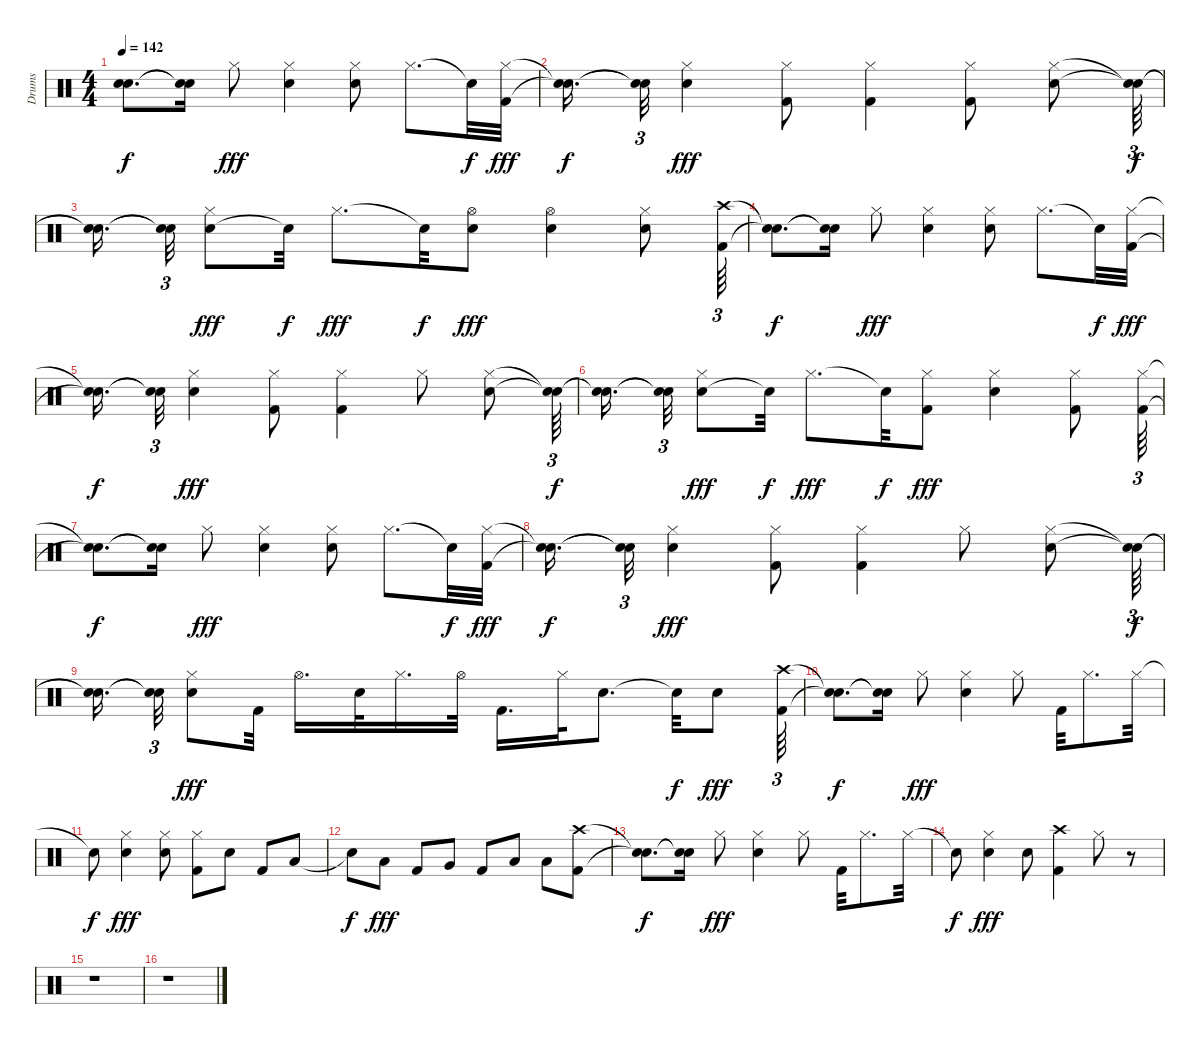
\track ("Drums" "Drums") {instrument percussion}
\staff {score}
\articulation defaults
\ts (4 4)
\tempo 142
\clef neutral
\ks c
("Snare (hit)"{t} "Snare (hit)"{t}).8{d dy f} ("Snare (hit)"{t} "Snare (hit)"{t}).16 "Hi-Hat (closed)".8{dy fff} ("Snare (hit) 2" "Hi-Hat (closed)").4 ("Snare (hit) 2" "Hi-Hat (closed)").8 "Hi-Hat (closed)".8{d} "Snare (hit)"{t}.32{dy f} ("Hi-Hat (closed)" "Kick (hit) 2").32{dy fff} |
("Snare (hit)"{t} "Snare (hit)"{t}).16{d dy f} ("Snare (hit)"{t} "Snare (hit)"{t}).32{tu (3 2)} ("Electric Snare (hit)" "Hi-Hat (closed)").4{dy fff} ("Kick (hit) 2" "Hi-Hat (closed)").8 ("Kick (hit) 2" "Hi-Hat (closed)").4 ("Hi-Hat (closed)" "Kick (hit) 2").8 ("Snare (hit) 2" "Hi-Hat (closed)").8 ("Snare (hit)"{t} "Snare (hit)"{t}).64{tu (3 2) dy f} |
("Snare (hit)"{t} "Snare (hit)"{t}).16{d} ("Snare (hit)"{t} "Snare (hit)"{t}).32{tu (3 2)} ("Snare (hit) 2" "Hi-Hat (closed)").8{dy fff} "Snare (hit)"{t}.32{dy f} "Hi-Hat (closed)".8{d dy fff} "Snare (hit)"{t}.32{dy f} ("Electric Snare (hit)" "Hi-Hat (open)").8{dy fff} ("Electric Snare (hit)" "Hi-Hat (open)").4 ("Electric Snare (hit)" "Hi-Hat (closed)").8 ("Crash high (hit)" "Kick (hit) 2").64{tu (3 2)} |
("Snare (hit)"{t} "Snare (hit)"{t}).8{d dy f} ("Snare (hit)"{t} "Snare (hit)"{t}).16 "Hi-Hat (closed)".8{dy fff} ("Snare (hit) 2" "Hi-Hat (closed)").4 ("Snare (hit) 2" "Hi-Hat (closed)").8 "Hi-Hat (closed)".8{d} "Snare (hit)"{t}.32{dy f} ("Hi-Hat (closed)" "Kick (hit) 2").32{dy fff} |
("Snare (hit)"{t} "Snare (hit)"{t}).16{d dy f} ("Snare (hit)"{t} "Snare (hit)"{t}).32{tu (3 2)} ("Electric Snare (hit)" "Hi-Hat (closed)").4{dy fff} ("Kick (hit) 2" "Hi-Hat (closed)").8 ("Kick (hit) 2" "Hi-Hat (closed)").4 "Hi-Hat (closed)".8 ("Snare (hit) 2" "Hi-Hat (closed)").8 ("Snare (hit)"{t} "Snare (hit)"{t}).64{tu (3 2) dy f} |
("Snare (hit)"{t} "Snare (hit)"{t}).16{d} ("Snare (hit)"{t} "Snare (hit)"{t}).32{tu (3 2)} ("Snare (hit) 2" "Hi-Hat (closed)").8{dy fff} "Snare (hit)"{t}.32{dy f} "Hi-Hat (closed)".8{d dy fff} "Snare (hit)"{t}.32{dy f} ("Hi-Hat (closed)" "Kick (hit) 2").8{dy fff} ("Electric Snare (hit)" "Hi-Hat (closed)").4 ("Hi-Hat (closed)" "Kick (hit) 2").8 ("Hi-Hat (closed)" "Kick (hit) 2").64{tu (3 2)} |
("Snare (hit)"{t} "Snare (hit)"{t}).8{d dy f} ("Snare (hit)"{t} "Snare (hit)"{t}).16 "Hi-Hat (closed)".8{dy fff} ("Snare (hit) 2" "Hi-Hat (closed)").4 ("Snare (hit) 2" "Hi-Hat (closed)").8 "Hi-Hat (closed)".8{d} "Snare (hit)"{t}.32{dy f} ("Hi-Hat (closed)" "Kick (hit) 2").32{dy fff} |
("Snare (hit)"{t} "Snare (hit)"{t}).16{d dy f} ("Snare (hit)"{t} "Snare (hit)"{t}).32{tu (3 2)} ("Electric Snare (hit)" "Hi-Hat (closed)").4{dy fff} ("Kick (hit) 2" "Hi-Hat (closed)").8 ("Hi-Hat (closed)" "Kick (hit) 2").4 "Hi-Hat (closed)".8 ("Snare (hit) 2" "Hi-Hat (closed)").8 ("Snare (hit)"{t} "Snare (hit)"{t}).64{tu (3 2) dy f} |
("Snare (hit)"{t} "Snare (hit)"{t}).16{d} ("Snare (hit)"{t} "Snare (hit)"{t}).32{tu (3 2)} ("Snare (hit) 2" "Hi-Hat (closed)").8{dy fff} "Kick (hit) 2".32 "Hi-Hat (open)".16{d} "Electric Snare (hit)".32 "Hi-Hat (closed)".16{d} "Hi-Hat (open)".32 "Kick (hit) 2".16{d} "Hi-Hat (closed)".32 "Snare (hit) 2".8{d} "Snare (hit)"{t}.32{dy f} "Snare (hit) 2".8{dy fff} ("Kick (hit) 2" "Crash high (hit)").64{tu (3 2)} |
("Snare (hit)"{t} "Snare (hit)"{t}).8{d dy f} ("Snare (hit)"{t} "Snare (hit)"{t}).16 "Hi-Hat (closed)".8{dy fff} ("Snare (hit) 2" "Hi-Hat (closed)").4 "Hi-Hat (closed)".8 "Kick (hit) 2".32 "Hi-Hat (closed)".8{d} "Hi-Hat (closed)".32 |
"Snare (hit)"{t}.8{dy f} ("Electric Snare (hit)" "Hi-Hat (closed)").4{dy fff} ("Snare (hit) 2" "Hi-Hat (closed)").8 ("Hi-Hat (closed)" "Kick (hit) 2").8 "Electric Snare (hit)".8 "Kick (hit) 2".8 "Low Tom (hit)".8 |
"Snare (hit)"{t}.8{dy f} "Low Tom (hit)".8{dy fff} "Kick (hit) 2".8 "Very Low Tom (hit)".8 "Kick (hit) 2".8 "Low Floor Tom (hit)".8 "Low Floor Tom (hit)".8 ("Kick (hit) 2" "Crash high (hit)").8 |
("Snare (hit)"{t} "Snare (hit)"{t}).8{d dy f} ("Snare (hit)"{t} "Snare (hit)"{t}).16 "Hi-Hat (closed)".8{dy fff} ("Snare (hit) 2" "Hi-Hat (closed)").4 "Hi-Hat (closed)".8 "Kick (hit) 2".32 "Hi-Hat (closed)".8{d} "Hi-Hat (closed)".32 |
"Snare (hit)"{t}.8{dy f} ("Hi-Hat (closed)" "Electric Snare (hit)").4{dy fff} "Snare (hit) 2".8 ("Kick (hit) 2" "Crash high (hit)").4 "Hi-Hat (closed)".8 r.8 |
r.1 |
r.1
